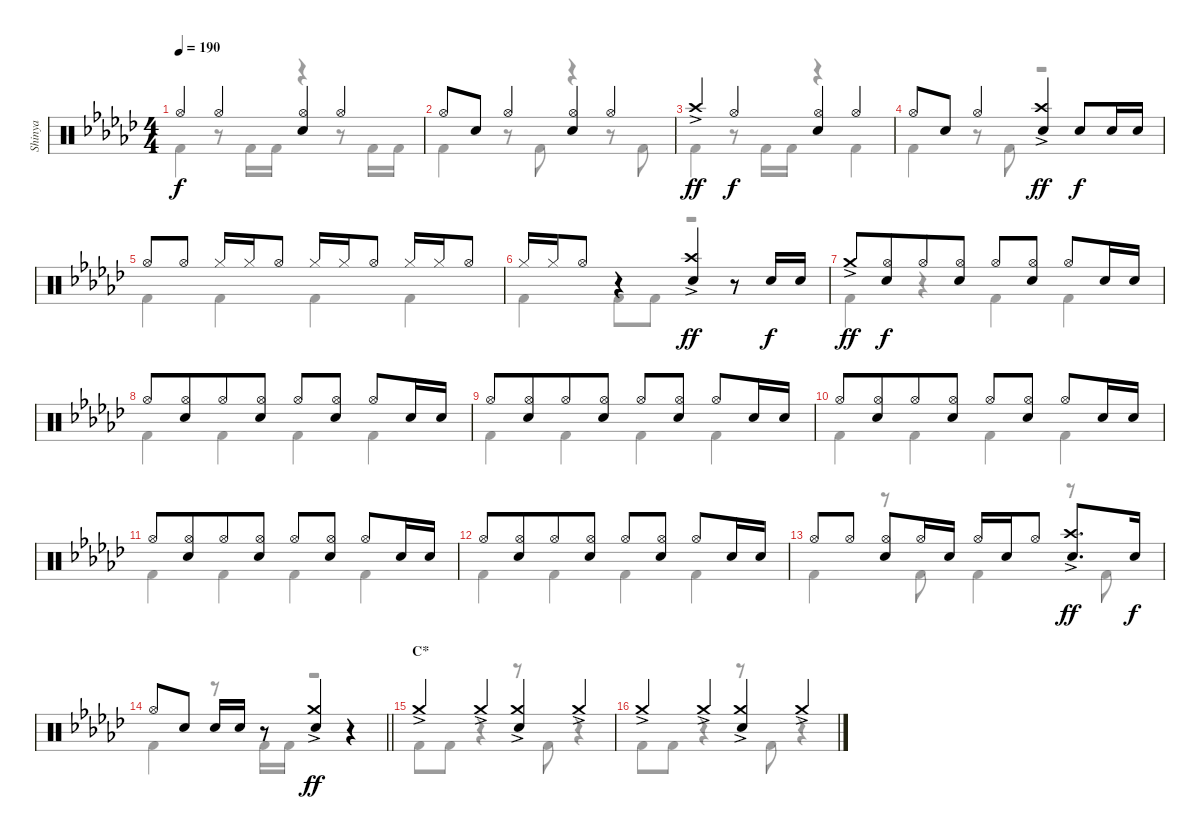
\track ("Shinya" "Shinya") {instrument percussion}
\staff {score}
\articulation defaults
\voice
\ts (4 4)
\tempo 190
\clef neutral
\ks ebminor "Hi-Hat (open)".4{dy f} "Hi-Hat (open)".4
("Hi-Hat (open)" "Snare (hit) 2").4 "Hi-Hat (open)".4 |
"Hi-Hat (open)".8 "Snare (hit) 2".8 "Hi-Hat (open)".4 ("Hi-Hat (open)" "Snare (hit) 2").4 "Hi-Hat (open)".4 |
"Crash high (hit)"{ac}.4{dy ff} "Hi-Hat (open)".4{dy f} ("Hi-Hat (open)" "Snare (hit) 2").4 "Hi-Hat (open)".4 |
"Hi-Hat (open)".8 "Snare (hit) 2".8 "Hi-Hat (open)".4 ("Crash high (hit)"{ac} "Snare (hit) 2").4{dy ff} "Snare (hit) 2".8{dy f} "Snare (hit) 2".16 "Snare (hit) 2".16 |
"Hi-Hat (open)".8 "Hi-Hat (open)".8 "Hi-Hat (closed)".16 "Hi-Hat (closed)".16 "Hi-Hat (open)".8 "Hi-Hat (closed)".16 "Hi-Hat (closed)".16 "Hi-Hat (open)".8 "Hi-Hat (closed)".16 "Hi-Hat (closed)".16 "Hi-Hat (open)".8 |
"Hi-Hat (closed)".16 "Hi-Hat (closed)".16 "Hi-Hat (open)".8 r.4 ("Crash high (hit)"{ac} "Snare (hit) 2").4{dy ff} r.8 "Snare (hit) 2".16{dy f} "Snare (hit) 2".16 |
"Crash medium (hit)"{ac}.8{dy ff} ("Hi-Hat (open)" "Snare (hit) 2").8{dy f beam merge} "Hi-Hat (open)".8 ("Hi-Hat (open)" "Snare (hit) 2").8 "Hi-Hat (open)".8 ("Hi-Hat (open)" "Snare (hit) 2").8 "Hi-Hat (open)".8 "Snare (hit) 2".16 "Snare (hit) 2".16 |
"Hi-Hat (open)".8 ("Hi-Hat (open)" "Snare (hit) 2").8{beam merge} "Hi-Hat (open)".8 ("Hi-Hat (open)" "Snare (hit) 2").8 "Hi-Hat (open)".8 ("Hi-Hat (open)" "Snare (hit) 2").8 "Hi-Hat (open)".8 "Snare (hit) 2".16 "Snare (hit) 2".16 |
"Hi-Hat (open)".8 ("Hi-Hat (open)" "Snare (hit) 2").8{beam merge} "Hi-Hat (open)".8 ("Hi-Hat (open)" "Snare (hit) 2").8 "Hi-Hat (open)".8 ("Hi-Hat (open)" "Snare (hit) 2").8 "Hi-Hat (open)".8 "Snare (hit) 2".16 "Snare (hit) 2".16 |
"Hi-Hat (open)".8 ("Hi-Hat (open)" "Snare (hit) 2").8{beam merge} "Hi-Hat (open)".8 ("Hi-Hat (open)" "Snare (hit) 2").8 "Hi-Hat (open)".8 ("Hi-Hat (open)" "Snare (hit) 2").8 "Hi-Hat (open)".8 "Snare (hit) 2".16 "Snare (hit) 2".16 |
"Hi-Hat (open)".8 ("Hi-Hat (open)" "Snare (hit) 2").8{beam merge} "Hi-Hat (open)".8 ("Hi-Hat (open)" "Snare (hit) 2").8 "Hi-Hat (open)".8 ("Hi-Hat (open)" "Snare (hit) 2").8 "Hi-Hat (open)".8 "Snare (hit) 2".16 "Snare (hit) 2".16 |
"Hi-Hat (open)".8 ("Hi-Hat (open)" "Snare (hit) 2").8{beam merge} "Hi-Hat (open)".8 ("Hi-Hat (open)" "Snare (hit) 2").8 "Hi-Hat (open)".8 ("Hi-Hat (open)" "Snare (hit) 2").8 "Hi-Hat (open)".8 "Snare (hit) 2".16 "Snare (hit) 2".16 |
"Hi-Hat (open)".8 "Hi-Hat (open)".8 ("Hi-Hat (open)" "Snare (hit) 2").8 "Hi-Hat (open)".16 "Snare (hit) 2".16 "Hi-Hat (open)".16 "Snare (hit) 2".16 "Hi-Hat (open)".8 ("Crash high (hit)"{ac} "Snare (hit) 2").8{d dy ff} "Snare (hit) 2".16{dy f} |
\barLineRight lightlight "Hi-Hat (open)".8 "Snare (hit) 2".8 "Snare (hit) 2".16 "Snare (hit) 2".16
r.8 ("Crash medium (hit)"{ac} "Snare (hit) 2").4{dy ff} r.4 |
\section ("" "C*")
"Crash medium (hit)"{ac}.4 "Crash medium (hit)"{ac}.4 ("Crash medium (hit)"{ac} "Snare (hit) 2").4 "Crash medium (hit)"{ac}.4 |
"Crash medium (hit)"{ac}.4 "Crash medium (hit)"{ac}.4 ("Crash medium (hit)"{ac} "Snare (hit) 2").4 "Crash medium (hit)"{ac}.4
\voice
\clef neutral
\ottava regular
\simile none
\ks ebminor "Kick (hit) 2".4{dy f}
r.8 "Kick (hit) 2".16 "Kick (hit) 2".16 r.4 r.8 "Kick (hit) 2".16 "Kick (hit) 2".16 |
"Kick (hit) 2".4 r.8 "Kick (hit) 2".8 r.4 r.8 "Kick (hit) 2".8 |
"Kick (hit) 2".4 r.8 "Kick (hit) 2".16 "Kick (hit) 2".16 r.4 "Kick (hit) 2".4 |
"Kick (hit) 2".4 r.8 "Kick (hit) 2".8 r.2 |
"Kick (hit) 2".4 "Kick (hit) 2".4 "Kick (hit) 2".4 "Kick (hit) 2".4 |
"Kick (hit) 2".4 "Kick (hit) 2".8 "Kick (hit) 2".8 r.2 |
"Kick (hit) 2".4 r.4 "Kick (hit) 2".4 "Kick (hit) 2".4 |
"Kick (hit) 2".4 "Kick (hit) 2".4 "Kick (hit) 2".4 "Kick (hit) 2".4 |
"Kick (hit) 2".4 "Kick (hit) 2".4 "Kick (hit) 2".4 "Kick (hit) 2".4 |
"Kick (hit) 2".4 "Kick (hit) 2".4 "Kick (hit) 2".4 "Kick (hit) 2".4 |
"Kick (hit) 2".4 "Kick (hit) 2".4 "Kick (hit) 2".4 "Kick (hit) 2".4 |
"Kick (hit) 2".4 "Kick (hit) 2".4 "Kick (hit) 2".4 "Kick (hit) 2".4 |
"Kick (hit) 2".4 r.8 "Kick (hit) 2".8 "Kick (hit) 2".4 r.8 "Kick (hit) 2".8 |
\barLineRight lightlight "Kick (hit) 2".4
r.8 "Kick (hit) 2".16 "Kick (hit) 2".16 r.2 |
"Kick (hit) 2".8 "Kick (hit) 2".8 r.4 r.8 "Kick (hit) 2".8 r.4 |
"Kick (hit) 2".8 "Kick (hit) 2".8 r.4 r.8 "Kick (hit) 2".8 r.4
